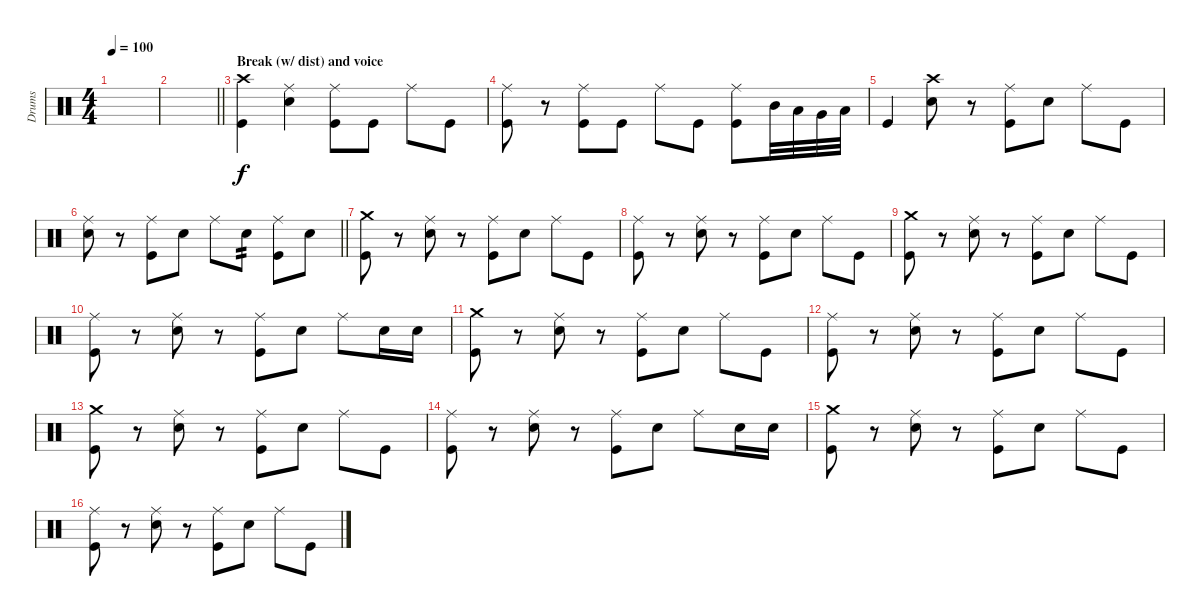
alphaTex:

\track ("Drums" "Drums") {instrument percussion}
\staff {score}
\articulation defaults
\ts (4 4)
\tempo 100
\clef neutral
\ks c
|
\barLineRight lightlight
|
\section ("" "Break (w/ dist) and voice")
("Crash high (hit)" "Kick (hit)").4 ("Ride (middle)" "Snare (hit) 2").4 ("Ride (middle)" "Kick (hit)").8 "Kick (hit)".8 "Ride (middle)".8 "Kick (hit)".8 |
("Ride (middle)" "Kick (hit)").8 r.8 ("Ride (middle)" "Kick (hit)").8 "Kick (hit)".8 "Ride (middle)".8 "Kick (hit)".8 ("Ride (middle)" "Kick (hit)").8 "Mid Tom (hit)".32 "Low Tom (hit)".32 "Very Low Tom (hit)".32 "Low Floor Tom (hit)".32 |
"Kick (hit)".4 ("Crash high (hit)" "Snare (hit) 2").8 r.8 ("Ride (middle)" "Kick (hit)").8 "Snare (hit) 2".8 "Ride (middle)".8 "Kick (hit)".8 |
\barLineRight lightlight
("Ride (middle)" "Snare (hit) 2").8 r.8 ("Ride (middle)" "Kick (hit)").8 "Snare (hit) 2".8 "Ride (middle)".8 "Snare (hit) 2".8{tp 2} ("Ride (middle)" "Kick (hit)").8 "Snare (hit) 2".8 |
("Crash medium (hit)" "Kick (hit)").8 r.8 ("Ride (middle)" "Snare (hit) 2").8 r.8 ("Ride (middle)" "Kick (hit)").8 "Snare (hit) 2".8 "Ride (middle)".8 "Kick (hit)".8 |
("Ride (middle)" "Kick (hit)").8 r.8 ("Ride (middle)" "Snare (hit) 2").8 r.8 ("Ride (middle)" "Kick (hit)").8 "Snare (hit) 2".8 "Ride (middle)".8 "Kick (hit)".8 |
("Crash medium (hit)" "Kick (hit)").8 r.8 ("Ride (middle)" "Snare (hit) 2").8 r.8 ("Ride (middle)" "Kick (hit)").8 "Snare (hit) 2".8 "Ride (middle)".8 "Kick (hit)".8 |
("Ride (middle)" "Kick (hit)").8 r.8 ("Ride (middle)" "Snare (hit) 2").8 r.8 ("Ride (middle)" "Kick (hit)").8 "Snare (hit) 2".8 "Ride (middle)".8 "Snare (hit) 2".16 "Snare (hit) 2".16 |
("Crash medium (hit)" "Kick (hit)").8 r.8 ("Ride (middle)" "Snare (hit) 2").8 r.8 ("Ride (middle)" "Kick (hit)").8 "Snare (hit) 2".8 "Ride (middle)".8 "Kick (hit)".8 |
("Ride (middle)" "Kick (hit)").8 r.8 ("Ride (middle)" "Snare (hit) 2").8 r.8 ("Ride (middle)" "Kick (hit)").8 "Snare (hit) 2".8 "Ride (middle)".8 "Kick (hit)".8 |
("Crash medium (hit)" "Kick (hit)").8 r.8 ("Ride (middle)" "Snare (hit) 2").8 r.8 ("Ride (middle)" "Kick (hit)").8 "Snare (hit) 2".8 "Ride (middle)".8 "Kick (hit)".8 |
("Ride (middle)" "Kick (hit)").8 r.8 ("Ride (middle)" "Snare (hit) 2").8 r.8 ("Ride (middle)" "Kick (hit)").8 "Snare (hit) 2".8 "Ride (middle)".8 "Snare (hit) 2".16 "Snare (hit) 2".16 |
("Crash medium (hit)" "Kick (hit)").8 r.8 ("Ride (middle)" "Snare (hit) 2").8 r.8 ("Ride (middle)" "Kick (hit)").8 "Snare (hit) 2".8 "Ride (middle)".8 "Kick (hit)".8 |
("Ride (middle)" "Kick (hit)").8 r.8 ("Ride (middle)" "Snare (hit) 2").8 r.8 ("Ride (middle)" "Kick (hit)").8 "Snare (hit) 2".8 "Ride (middle)".8 "Kick (hit)".8
